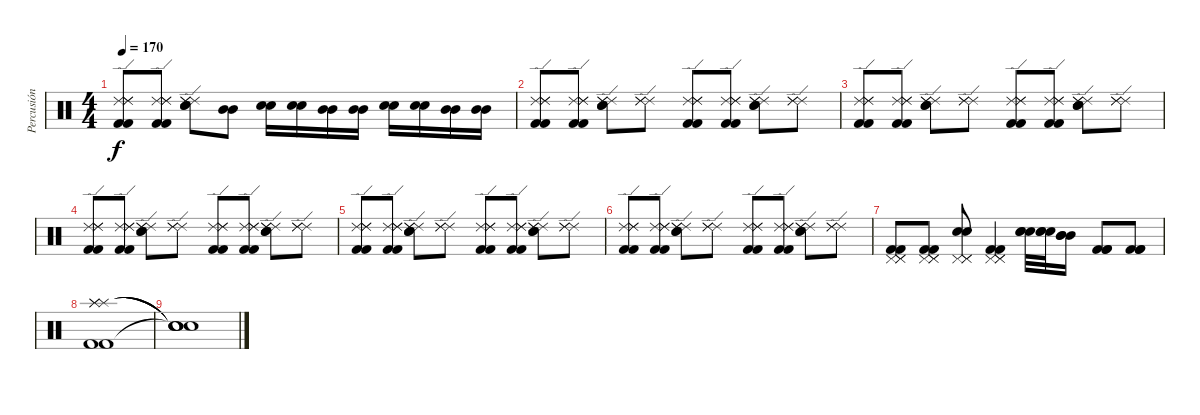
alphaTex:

\track ("Percusión" "Percusión") {instrument percussion}
\staff {score}
\articulation defaults
\ts (4 4)
\tempo 170
\clef neutral
\ks c
("Kick (hit) 2" "Kick (hit) 2" "Ride (edge) 2" "Ride (edge) 2" "Ride (edge) 2").8{dy f} ("Kick (hit) 2" "Kick (hit) 2" "Ride (edge) 2" "Ride (edge) 2" "Ride (edge) 2").8 ("Snare (hit) 2" "Snare (hit) 2" "Ride (edge) 2" "Ride (edge) 2" "Ride (edge) 2").8 ("Mid Tom (hit)" "Mid Tom (hit)").8 ("Snare (hit) 2" "Snare (hit) 2").16 ("Snare (hit) 2" "Snare (hit) 2").16 ("Mid Tom (hit)" "Mid Tom (hit)").16 ("Mid Tom (hit)" "Mid Tom (hit)").16 ("Snare (hit) 2" "Snare (hit) 2").16 ("Snare (hit) 2" "Snare (hit) 2").16 ("Mid Tom (hit)" "Mid Tom (hit)").16 ("Mid Tom (hit)" "Mid Tom (hit)").16 |
("Kick (hit) 2" "Kick (hit) 2" "Ride (edge) 2" "Ride (edge) 2" "Ride (edge) 2").8 ("Kick (hit) 2" "Kick (hit) 2" "Ride (edge) 2" "Ride (edge) 2" "Ride (edge) 2").8 ("Snare (hit) 2" "Snare (hit) 2" "Ride (edge) 2" "Ride (edge) 2" "Ride (edge) 2").8 ("Ride (edge) 2" "Ride (edge) 2" "Ride (edge) 2").8 ("Kick (hit) 2" "Kick (hit) 2" "Ride (edge) 2" "Ride (edge) 2" "Ride (edge) 2").8 ("Kick (hit) 2" "Kick (hit) 2" "Ride (edge) 2" "Ride (edge) 2" "Ride (edge) 2").8 ("Snare (hit) 2" "Snare (hit) 2" "Ride (edge) 2" "Ride (edge) 2" "Ride (edge) 2").8 ("Ride (edge) 2" "Ride (edge) 2" "Ride (edge) 2").8 |
("Kick (hit) 2" "Kick (hit) 2" "Ride (edge) 2" "Ride (edge) 2" "Ride (edge) 2").8 ("Kick (hit) 2" "Kick (hit) 2" "Ride (edge) 2" "Ride (edge) 2" "Ride (edge) 2").8 ("Snare (hit) 2" "Snare (hit) 2" "Ride (edge) 2" "Ride (edge) 2" "Ride (edge) 2").8 ("Ride (edge) 2" "Ride (edge) 2" "Ride (edge) 2").8 ("Kick (hit) 2" "Kick (hit) 2" "Ride (edge) 2" "Ride (edge) 2" "Ride (edge) 2").8 ("Kick (hit) 2" "Kick (hit) 2" "Ride (edge) 2" "Ride (edge) 2" "Ride (edge) 2").8 ("Snare (hit) 2" "Snare (hit) 2" "Ride (edge) 2" "Ride (edge) 2" "Ride (edge) 2").8 ("Ride (edge) 2" "Ride (edge) 2" "Ride (edge) 2").8 |
("Kick (hit) 2" "Kick (hit) 2" "Ride (edge) 2" "Ride (edge) 2" "Ride (edge) 2").8 ("Kick (hit) 2" "Kick (hit) 2" "Ride (edge) 2" "Ride (edge) 2" "Ride (edge) 2").8 ("Snare (hit) 2" "Snare (hit) 2" "Ride (edge) 2" "Ride (edge) 2" "Ride (edge) 2").8 ("Ride (edge) 2" "Ride (edge) 2" "Ride (edge) 2").8 ("Kick (hit) 2" "Kick (hit) 2" "Ride (edge) 2" "Ride (edge) 2" "Ride (edge) 2").8 ("Kick (hit) 2" "Kick (hit) 2" "Ride (edge) 2" "Ride (edge) 2" "Ride (edge) 2").8 ("Snare (hit) 2" "Snare (hit) 2" "Ride (edge) 2" "Ride (edge) 2" "Ride (edge) 2").8 ("Ride (edge) 2" "Ride (edge) 2" "Ride (edge) 2").8 |
("Kick (hit) 2" "Kick (hit) 2" "Ride (edge) 2" "Ride (edge) 2" "Ride (edge) 2").8 ("Kick (hit) 2" "Kick (hit) 2" "Ride (edge) 2" "Ride (edge) 2" "Ride (edge) 2").8 ("Snare (hit) 2" "Snare (hit) 2" "Ride (edge) 2" "Ride (edge) 2" "Ride (edge) 2").8 ("Ride (edge) 2" "Ride (edge) 2" "Ride (edge) 2").8 ("Kick (hit) 2" "Kick (hit) 2" "Ride (edge) 2" "Ride (edge) 2" "Ride (edge) 2").8 ("Kick (hit) 2" "Kick (hit) 2" "Ride (edge) 2" "Ride (edge) 2" "Ride (edge) 2").8 ("Snare (hit) 2" "Snare (hit) 2" "Ride (edge) 2" "Ride (edge) 2" "Ride (edge) 2").8 ("Ride (edge) 2" "Ride (edge) 2" "Ride (edge) 2").8 |
("Kick (hit) 2" "Kick (hit) 2" "Ride (edge) 2" "Ride (edge) 2" "Ride (edge) 2").8 ("Kick (hit) 2" "Kick (hit) 2" "Ride (edge) 2" "Ride (edge) 2" "Ride (edge) 2").8 ("Snare (hit) 2" "Snare (hit) 2" "Ride (edge) 2" "Ride (edge) 2" "Ride (edge) 2").8 ("Ride (edge) 2" "Ride (edge) 2" "Ride (edge) 2").8 ("Kick (hit) 2" "Kick (hit) 2" "Ride (edge) 2" "Ride (edge) 2" "Ride (edge) 2").8 ("Kick (hit) 2" "Kick (hit) 2" "Ride (edge) 2" "Ride (edge) 2" "Ride (edge) 2").8 ("Snare (hit) 2" "Snare (hit) 2" "Ride (edge) 2" "Ride (edge) 2" "Ride (edge) 2").8 ("Ride (edge) 2" "Ride (edge) 2" "Ride (edge) 2").8 |
("Kick (hit) 2" "Kick (hit) 2" "Pedal Hi-Hat (hit)" "Pedal Hi-Hat (hit)" "Pedal Hi-Hat (hit)").8 ("Kick (hit) 2" "Kick (hit) 2" "Pedal Hi-Hat (hit)" "Pedal Hi-Hat (hit)" "Pedal Hi-Hat (hit)").8 ("Snare (hit) 2" "Snare (hit) 2" "Pedal Hi-Hat (hit)" "Pedal Hi-Hat (hit)" "Pedal Hi-Hat (hit)").8 ("Kick (hit) 2" "Kick (hit) 2" "Pedal Hi-Hat (hit)" "Pedal Hi-Hat (hit)" "Pedal Hi-Hat (hit)").4 ("Snare (hit) 2" "Snare (hit) 2" "Snare (hit) 2").32 ("Snare (hit) 2" "Snare (hit) 2" "Snare (hit) 2").32 ("Mid Tom (hit)" "Mid Tom (hit)" "Mid Tom (hit)").16 ("Kick (hit) 2" "Kick (hit) 2" "Kick (hit) 2").8 ("Kick (hit) 2" "Kick (hit) 2" "Kick (hit) 2").8 |
("Splash (hit)" "Splash (hit)" "Splash (hit)" "Kick (hit) 2" "Kick (hit) 2").1 |
("Snare (hit)"{t} "Snare (hit)"{t} "Snare (hit)"{t} "Snare (hit)"{t}).1
